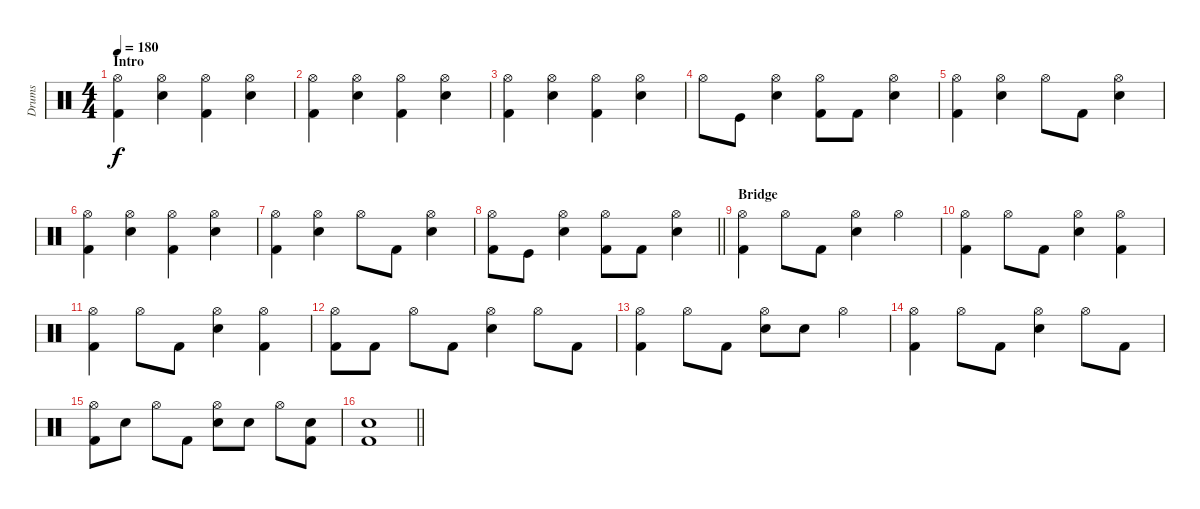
\track ("Drums" "Drums") {instrument percussion}
\staff {score}
\articulation defaults
\ts (4 4)
\section ("" "Intro")
\tempo 180
\clef neutral
\ks c
("Hi-Hat (open)" "Kick (hit) 2").4{dy f} ("Hi-Hat (open)" "Electric Snare (hit)").4 ("Hi-Hat (open)" "Kick (hit) 2").4 ("Hi-Hat (open)" "Electric Snare (hit)").4 |
("Hi-Hat (open)" "Kick (hit) 2").4 ("Hi-Hat (open)" "Electric Snare (hit)").4 ("Hi-Hat (open)" "Kick (hit) 2").4 ("Hi-Hat (open)" "Electric Snare (hit)").4 |
("Hi-Hat (open)" "Kick (hit) 2").4 ("Hi-Hat (open)" "Electric Snare (hit)").4 ("Hi-Hat (open)" "Kick (hit) 2").4 ("Hi-Hat (open)" "Electric Snare (hit)").4 |
"Hi-Hat (open)".8 "Kick (hit)".8 ("Hi-Hat (open)" "Electric Snare (hit)").4 ("Hi-Hat (open)" "Kick (hit) 2").8 "Kick (hit) 2".8 ("Hi-Hat (open)" "Electric Snare (hit)").4 |
("Hi-Hat (open)" "Kick (hit) 2").4 ("Hi-Hat (open)" "Electric Snare (hit)").4 "Hi-Hat (open)".8 "Kick (hit) 2".8 ("Hi-Hat (open)" "Electric Snare (hit)").4 |
("Hi-Hat (open)" "Kick (hit) 2").4 ("Hi-Hat (open)" "Electric Snare (hit)").4 ("Hi-Hat (open)" "Kick (hit) 2").4 ("Hi-Hat (open)" "Electric Snare (hit)").4 |
("Hi-Hat (open)" "Kick (hit) 2").4 ("Hi-Hat (open)" "Electric Snare (hit)").4 "Hi-Hat (open)".8 "Kick (hit) 2".8 ("Hi-Hat (open)" "Electric Snare (hit)").4 |
\barLineRight lightlight
("Hi-Hat (open)" "Kick (hit) 2").8 "Kick (hit)".8 ("Hi-Hat (open)" "Electric Snare (hit)").4 ("Hi-Hat (open)" "Kick (hit) 2").8 "Kick (hit) 2".8 ("Hi-Hat (open)" "Electric Snare (hit)").4 |
\section ("" "Bridge")
("Hi-Hat (open)" "Kick (hit) 2").4 "Hi-Hat (open)".8 "Kick (hit) 2".8 ("Hi-Hat (open)" "Electric Snare (hit)").4 "Hi-Hat (open)".4 |
("Hi-Hat (open)" "Kick (hit) 2").4 "Hi-Hat (open)".8 "Kick (hit) 2".8 ("Hi-Hat (open)" "Electric Snare (hit)").4 ("Hi-Hat (open)" "Kick (hit) 2").4 |
("Hi-Hat (open)" "Kick (hit) 2").4 "Hi-Hat (open)".8 "Kick (hit) 2".8 ("Hi-Hat (open)" "Electric Snare (hit)").4 ("Hi-Hat (open)" "Kick (hit) 2").4 |
("Hi-Hat (open)" "Kick (hit) 2").8 "Kick (hit) 2".8 "Hi-Hat (open)".8 "Kick (hit) 2".8 ("Hi-Hat (open)" "Electric Snare (hit)").4 "Hi-Hat (open)".8 "Kick (hit) 2".8 |
("Hi-Hat (open)" "Kick (hit) 2").4 "Hi-Hat (open)".8 "Kick (hit) 2".8 ("Hi-Hat (open)" "Electric Snare (hit)").8 "Electric Snare (hit)".8 "Hi-Hat (open)".4 |
("Hi-Hat (open)" "Kick (hit) 2").4 "Hi-Hat (open)".8 "Kick (hit) 2".8 ("Hi-Hat (open)" "Electric Snare (hit)").4 "Hi-Hat (open)".8 "Kick (hit) 2".8 |
("Hi-Hat (open)" "Kick (hit) 2").8 "Electric Snare (hit)".8 "Hi-Hat (open)".8 "Kick (hit) 2".8 ("Hi-Hat (open)" "Electric Snare (hit)").8 "Electric Snare (hit)".8 "Hi-Hat (open)".8 ("Electric Snare (hit)" "Kick (hit) 2").8 |
\barLineRight lightlight
("Electric Snare (hit)" "Kick (hit) 2").1
